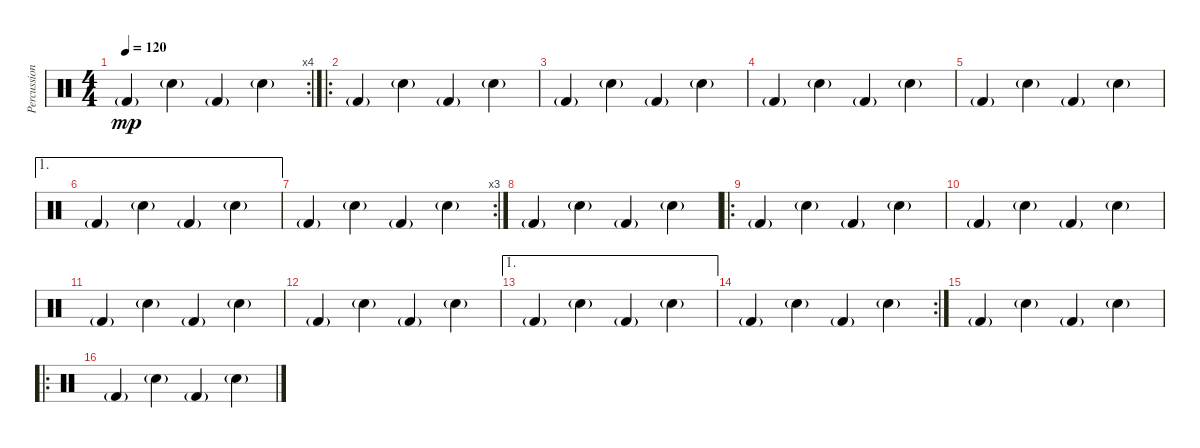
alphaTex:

\track ("Percussion" "Percussion") {instrument percussion}
\staff {score}
\articulation defaults
\rc 4
\ts (4 4)
\tempo 120
\clef neutral
\ks c "Kick (hit) 2"{g}.4{dy mp} "Electric Snare (hit)"{g}.4 "Kick (hit) 2"{g}.4 "Electric Snare (hit)"{g}.4
|
\ro "Kick (hit) 2"{g}.4 "Electric Snare (hit)"{g}.4 "Kick (hit) 2"{g}.4 "Electric Snare (hit)"{g}.4
|
"Kick (hit) 2"{g}.4 "Electric Snare (hit)"{g}.4 "Kick (hit) 2"{g}.4 "Electric Snare (hit)"{g}.4 |
"Kick (hit) 2"{g}.4 "Electric Snare (hit)"{g}.4 "Kick (hit) 2"{g}.4 "Electric Snare (hit)"{g}.4 |
"Kick (hit) 2"{g}.4 "Electric Snare (hit)"{g}.4 "Kick (hit) 2"{g}.4 "Electric Snare (hit)"{g}.4 |
\ae 1 "Kick (hit) 2"{g}.4 "Electric Snare (hit)"{g}.4 "Kick (hit) 2"{g}.4 "Electric Snare (hit)"{g}.4
|
\rc 3 "Kick (hit) 2"{g}.4 "Electric Snare (hit)"{g}.4 "Kick (hit) 2"{g}.4 "Electric Snare (hit)"{g}.4
|
"Kick (hit) 2"{g}.4 "Electric Snare (hit)"{g}.4 "Kick (hit) 2"{g}.4 "Electric Snare (hit)"{g}.4 |
\ro "Kick (hit) 2"{g}.4 "Electric Snare (hit)"{g}.4 "Kick (hit) 2"{g}.4 "Electric Snare (hit)"{g}.4
|
"Kick (hit) 2"{g}.4 "Electric Snare (hit)"{g}.4 "Kick (hit) 2"{g}.4 "Electric Snare (hit)"{g}.4 |
"Kick (hit) 2"{g}.4 "Electric Snare (hit)"{g}.4 "Kick (hit) 2"{g}.4 "Electric Snare (hit)"{g}.4 |
"Kick (hit) 2"{g}.4 "Electric Snare (hit)"{g}.4 "Kick (hit) 2"{g}.4 "Electric Snare (hit)"{g}.4 |
\ae 1 "Kick (hit) 2"{g}.4 "Electric Snare (hit)"{g}.4 "Kick (hit) 2"{g}.4 "Electric Snare (hit)"{g}.4
|
\rc 2 "Kick (hit) 2"{g}.4 "Electric Snare (hit)"{g}.4 "Kick (hit) 2"{g}.4 "Electric Snare (hit)"{g}.4
|
"Kick (hit) 2"{g}.4 "Electric Snare (hit)"{g}.4 "Kick (hit) 2"{g}.4 "Electric Snare (hit)"{g}.4 |
\ro "Kick (hit) 2"{g}.4 "Electric Snare (hit)"{g}.4 "Kick (hit) 2"{g}.4 "Electric Snare (hit)"{g}.4
